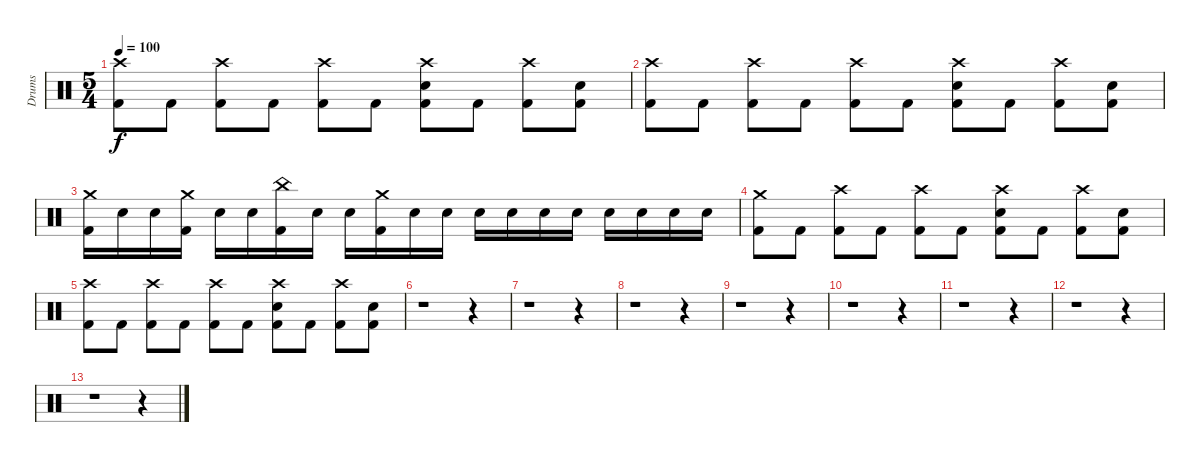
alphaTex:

\track ("Drums" "Drums") {instrument percussion}
\staff {score}
\articulation defaults
\ts (5 4)
\tempo 100
\clef neutral
\ks c
("Crash high (hit)" "Kick (hit) 2").8{dy f} "Kick (hit) 2".8 ("Crash high (hit)" "Kick (hit) 2").8 "Kick (hit) 2".8 ("Crash high (hit)" "Kick (hit) 2").8 "Kick (hit) 2".8 ("Crash high (hit)" "Snare (hit) 2" "Kick (hit) 2").8 "Kick (hit) 2".8 ("Crash high (hit)" "Kick (hit) 2").8 ("Snare (hit) 2" "Kick (hit) 2").8 |
("Crash high (hit)" "Kick (hit) 2").8 "Kick (hit) 2".8 ("Crash high (hit)" "Kick (hit) 2").8 "Kick (hit) 2".8 ("Crash high (hit)" "Kick (hit) 2").8 "Kick (hit) 2".8 ("Crash high (hit)" "Snare (hit) 2" "Kick (hit) 2").8 "Kick (hit) 2".8 ("Crash high (hit)" "Kick (hit) 2").8 ("Snare (hit) 2" "Kick (hit) 2").8 |
("Crash medium (hit)" "Kick (hit) 2").16 "Snare (hit) 2".16 "Snare (hit) 2".16 ("Crash medium (hit)" "Kick (hit) 2").16 "Snare (hit) 2".16 "Snare (hit) 2".16 ("China (hit)" "Kick (hit) 2").16 "Snare (hit) 2".16 "Snare (hit) 2".16 ("Crash medium (hit)" "Kick (hit) 2").16 "Snare (hit) 2".16 "Snare (hit) 2".16 "Snare (hit) 2".16 "Snare (hit) 2".16 "Snare (hit) 2".16 "Snare (hit) 2".16 "Snare (hit) 2".16 "Snare (hit) 2".16 "Snare (hit) 2".16 "Snare (hit) 2".16 |
("Crash medium (hit)" "Kick (hit) 2").8 "Kick (hit) 2".8 ("Crash high (hit)" "Kick (hit) 2").8 "Kick (hit) 2".8 ("Crash high (hit)" "Kick (hit) 2").8 "Kick (hit) 2".8 ("Crash high (hit)" "Snare (hit) 2" "Kick (hit) 2").8 "Kick (hit) 2".8 ("Crash high (hit)" "Kick (hit) 2").8 ("Snare (hit) 2" "Kick (hit) 2").8 |
("Crash high (hit)" "Kick (hit) 2").8 "Kick (hit) 2".8 ("Crash high (hit)" "Kick (hit) 2").8 "Kick (hit) 2".8 ("Crash high (hit)" "Kick (hit) 2").8 "Kick (hit) 2".8 ("Crash high (hit)" "Snare (hit) 2" "Kick (hit) 2").8 "Kick (hit) 2".8 ("Crash high (hit)" "Kick (hit) 2").8 ("Snare (hit) 2" "Kick (hit) 2").8 |
r.1 r.4 |
r.1 r.4 |
r.1 r.4 |
r.1 r.4 |
r.1 r.4 |
r.1 r.4 |
r.1 r.4 |
r.1 r.4
